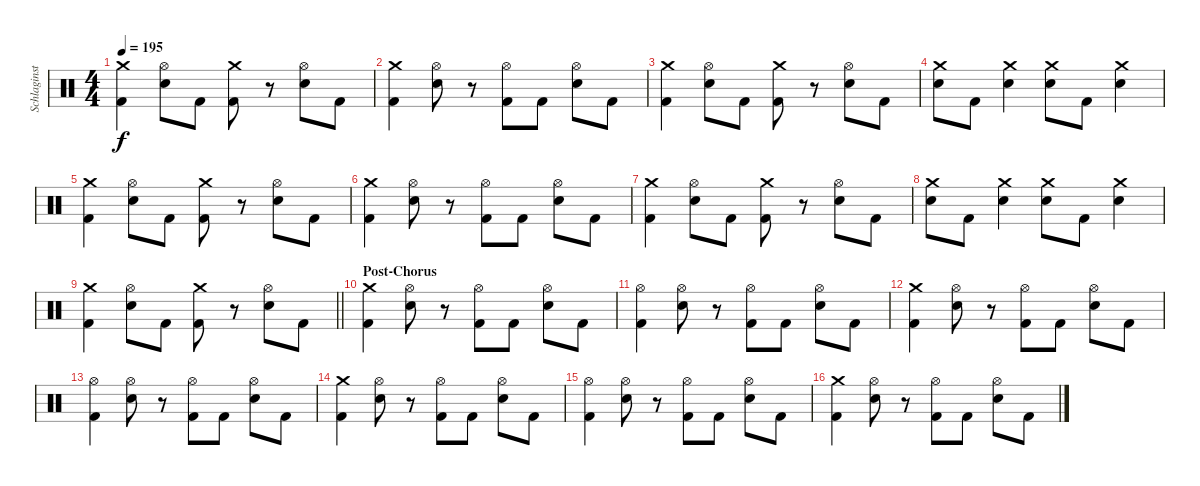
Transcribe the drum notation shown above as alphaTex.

\track ("Schlaginstrumente - Auswahl" "Schlaginst") {instrument percussion}
\staff {score}
\articulation defaults
\ts (4 4)
\tempo 195
\clef neutral
\ks c
("Crash medium (hit)" "Kick (hit) 2").4{dy f} ("Hi-Hat (open)" "Snare (hit) 2").8 "Kick (hit) 2".8 ("Crash medium (hit)" "Kick (hit) 2").8 r.8 ("Hi-Hat (open)" "Snare (hit) 2").8 "Kick (hit) 2".8 |
("Crash medium (hit)" "Kick (hit) 2").4 ("Hi-Hat (open)" "Snare (hit) 2").8 r.8 ("Hi-Hat (open)" "Kick (hit) 2").8 "Kick (hit) 2".8 ("Hi-Hat (open)" "Snare (hit) 2").8 "Kick (hit) 2".8 |
("Crash medium (hit)" "Kick (hit) 2").4 ("Hi-Hat (open)" "Snare (hit) 2").8 "Kick (hit) 2".8 ("Crash medium (hit)" "Kick (hit) 2").8 r.8 ("Hi-Hat (open)" "Snare (hit) 2").8 "Kick (hit) 2".8 |
("Crash medium (hit)" "Snare (hit) 2").8 "Kick (hit) 2".8 ("Crash medium (hit)" "Snare (hit) 2").4 ("Crash medium (hit)" "Snare (hit) 2").8 "Kick (hit) 2".8 ("Crash medium (hit)" "Snare (hit) 2").4 |
("Crash medium (hit)" "Kick (hit) 2").4 ("Hi-Hat (open)" "Snare (hit) 2").8 "Kick (hit) 2".8 ("Crash medium (hit)" "Kick (hit) 2").8 r.8 ("Hi-Hat (open)" "Snare (hit) 2").8 "Kick (hit) 2".8 |
("Crash medium (hit)" "Kick (hit) 2").4 ("Hi-Hat (open)" "Snare (hit) 2").8 r.8 ("Hi-Hat (open)" "Kick (hit) 2").8 "Kick (hit) 2".8 ("Hi-Hat (open)" "Snare (hit) 2").8 "Kick (hit) 2".8 |
("Crash medium (hit)" "Kick (hit) 2").4 ("Hi-Hat (open)" "Snare (hit) 2").8 "Kick (hit) 2".8 ("Crash medium (hit)" "Kick (hit) 2").8 r.8 ("Hi-Hat (open)" "Snare (hit) 2").8 "Kick (hit) 2".8 |
("Crash medium (hit)" "Snare (hit) 2").8 "Kick (hit) 2".8 ("Crash medium (hit)" "Snare (hit) 2").4 ("Crash medium (hit)" "Snare (hit) 2").8 "Kick (hit) 2".8 ("Crash medium (hit)" "Snare (hit) 2").4 |
\barLineRight lightlight
("Crash medium (hit)" "Kick (hit) 2").4 ("Hi-Hat (open)" "Snare (hit) 2").8 "Kick (hit) 2".8 ("Crash medium (hit)" "Kick (hit) 2").8 r.8 ("Hi-Hat (open)" "Snare (hit) 2").8 "Kick (hit) 2".8 |
\section ("" "Post-Chorus")
("Crash medium (hit)" "Kick (hit) 2").4 ("Hi-Hat (open)" "Snare (hit) 2").8 r.8 ("Hi-Hat (open)" "Kick (hit) 2").8 "Kick (hit) 2".8 ("Hi-Hat (open)" "Snare (hit) 2").8 "Kick (hit) 2".8 |
("Hi-Hat (open)" "Kick (hit) 2").4 ("Hi-Hat (open)" "Snare (hit) 2").8 r.8 ("Hi-Hat (open)" "Kick (hit) 2").8 "Kick (hit) 2".8 ("Hi-Hat (open)" "Snare (hit) 2").8 "Kick (hit) 2".8 |
("Crash medium (hit)" "Kick (hit) 2").4 ("Hi-Hat (open)" "Snare (hit) 2").8 r.8 ("Hi-Hat (open)" "Kick (hit) 2").8 "Kick (hit) 2".8 ("Hi-Hat (open)" "Snare (hit) 2").8 "Kick (hit) 2".8 |
("Hi-Hat (open)" "Kick (hit) 2").4 ("Hi-Hat (open)" "Snare (hit) 2").8 r.8 ("Hi-Hat (open)" "Kick (hit) 2").8 "Kick (hit) 2".8 ("Hi-Hat (open)" "Snare (hit) 2").8 "Kick (hit) 2".8 |
("Crash medium (hit)" "Kick (hit) 2").4 ("Hi-Hat (open)" "Snare (hit) 2").8 r.8 ("Hi-Hat (open)" "Kick (hit) 2").8 "Kick (hit) 2".8 ("Hi-Hat (open)" "Snare (hit) 2").8 "Kick (hit) 2".8 |
("Hi-Hat (open)" "Kick (hit) 2").4 ("Hi-Hat (open)" "Snare (hit) 2").8 r.8 ("Hi-Hat (open)" "Kick (hit) 2").8 "Kick (hit) 2".8 ("Hi-Hat (open)" "Snare (hit) 2").8 "Kick (hit) 2".8 |
("Crash medium (hit)" "Kick (hit) 2").4 ("Hi-Hat (open)" "Snare (hit) 2").8 r.8 ("Hi-Hat (open)" "Kick (hit) 2").8 "Kick (hit) 2".8 ("Hi-Hat (open)" "Snare (hit) 2").8 "Kick (hit) 2".8
